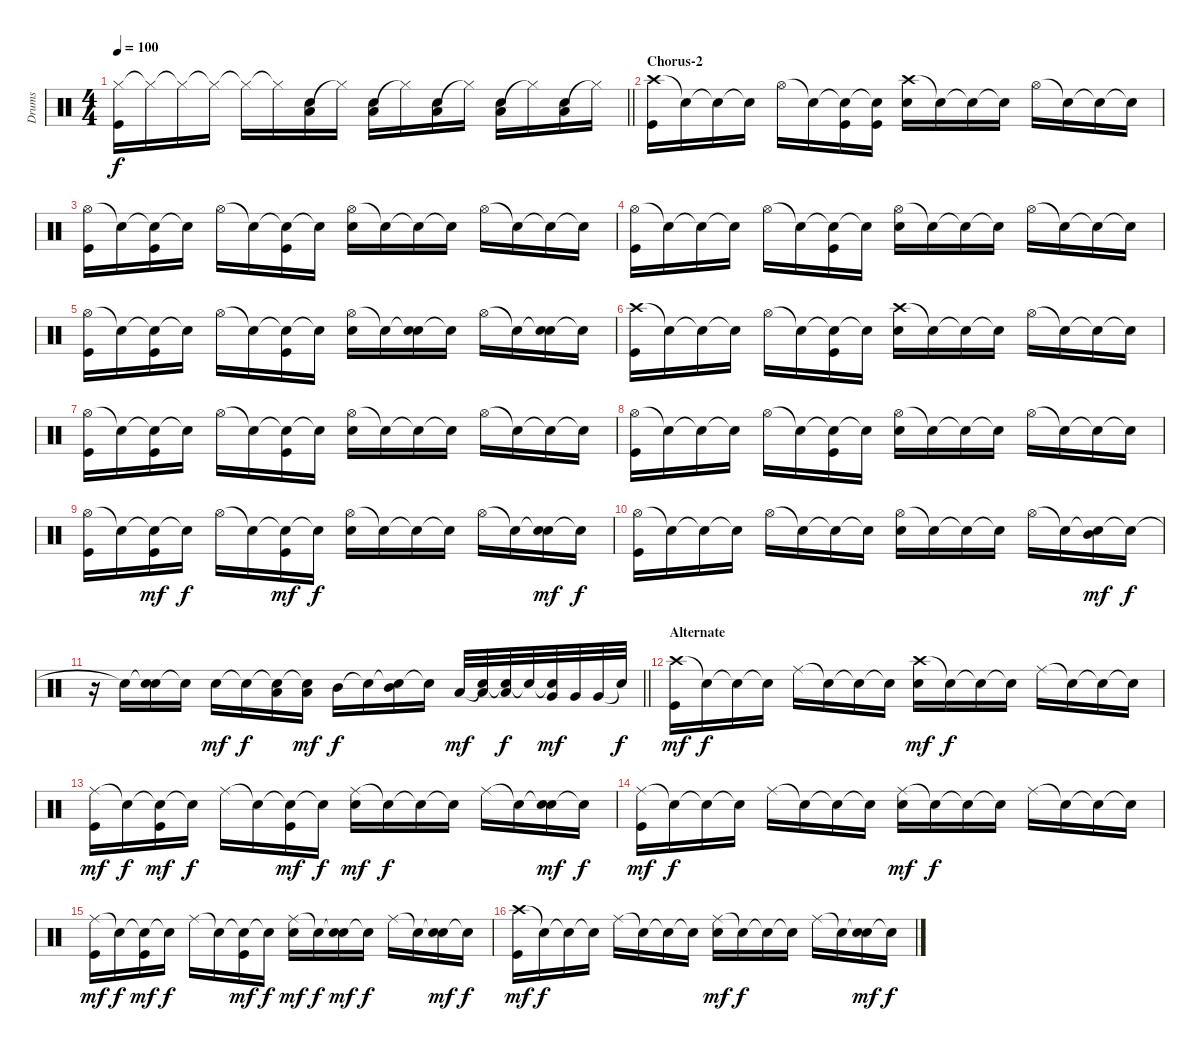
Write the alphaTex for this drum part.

\track ("Drums" "Drums") {instrument percussion}
\staff {score}
\articulation defaults
\ts (4 4)
\tempo 100
\clef neutral
\barLineRight lightlight
\ks c
("Hi-Hat (closed)"{t} "Kick (hit)"{t}).16{dy f} "Hi-Hat (closed)"{t}.16 "Hi-Hat (closed)"{t}.16 "Hi-Hat (closed)"{t}.16 "Hi-Hat (closed)"{t}.16 "Hi-Hat (closed)"{t}.16 ("Low Tom (hit)" "Electric Snare (hit)").16 "Hi-Hat (closed)"{t}.16 ("Low Tom (hit)" "Electric Snare (hit)").16 "Hi-Hat (closed)"{t}.16 ("Low Tom (hit)" "Electric Snare (hit)").16 "Hi-Hat (closed)"{t}.16 ("Low Tom (hit)" "Electric Snare (hit)").16 "Hi-Hat (closed)"{t}.16 ("Low Tom (hit)" "Electric Snare (hit)").16 "Hi-Hat (closed)"{t}.16 |
\section ("" "Chorus-2")
("Crash high (hit)" "Kick (hit)").16 "Snare (hit)"{t}.16 "Snare (hit)"{t}.16 "Snare (hit)"{t}.16 "Hi-Hat (open)".16 "Snare (hit)"{t}.16 ("Snare (hit)"{t} "Kick (hit)").16 ("Snare (hit)"{t} "Kick (hit)").16 ("Crash high (hit)" "Electric Snare (hit)").16 "Snare (hit)"{t}.16 "Snare (hit)"{t}.16 "Snare (hit)"{t}.16 "Hi-Hat (open)".16 "Snare (hit)"{t}.16 "Snare (hit)"{t}.16 "Snare (hit)"{t}.16 |
("Hi-Hat (open)" "Kick (hit)").16 "Snare (hit)"{t}.16 ("Snare (hit)"{t} "Kick (hit)").16 "Snare (hit)"{t}.16 "Hi-Hat (open)".16 "Snare (hit)"{t}.16 ("Snare (hit)"{t} "Kick (hit)").16 "Snare (hit)"{t}.16 ("Hi-Hat (open)" "Electric Snare (hit)").16 "Snare (hit)"{t}.16 "Snare (hit)"{t}.16 "Snare (hit)"{t}.16 "Hi-Hat (open)".16 "Snare (hit)"{t}.16 "Snare (hit)"{t}.16 "Snare (hit)"{t}.16 |
("Hi-Hat (open)" "Kick (hit)").16 "Snare (hit)"{t}.16 "Snare (hit)"{t}.16 "Snare (hit)"{t}.16 "Hi-Hat (open)".16 "Snare (hit)"{t}.16 ("Snare (hit)"{t} "Kick (hit)").16 "Snare (hit)"{t}.16 ("Hi-Hat (open)" "Electric Snare (hit)").16 "Snare (hit)"{t}.16 "Snare (hit)"{t}.16 "Snare (hit)"{t}.16 "Hi-Hat (open)".16 "Snare (hit)"{t}.16 "Snare (hit)"{t}.16 "Snare (hit)"{t}.16 |
("Hi-Hat (open)" "Kick (hit)").16 "Snare (hit)"{t}.16 ("Snare (hit)"{t} "Kick (hit)").16 "Snare (hit)"{t}.16 "Hi-Hat (open)".16 "Snare (hit)"{t}.16 ("Snare (hit)"{t} "Kick (hit)").16 "Snare (hit)"{t}.16 ("Hi-Hat (open)" "Electric Snare (hit)").16 "Snare (hit)"{t}.16 ("Snare (hit)"{t} "Electric Snare (hit)").16 "Snare (hit)"{t}.16 "Hi-Hat (open)".16 "Snare (hit)"{t}.16 ("Snare (hit)"{t} "Electric Snare (hit)").16 "Snare (hit)"{t}.16 |
("Crash high (hit)" "Kick (hit)").16 "Snare (hit)"{t}.16 "Snare (hit)"{t}.16 "Snare (hit)"{t}.16 "Hi-Hat (open)".16 "Snare (hit)"{t}.16 ("Snare (hit)"{t} "Kick (hit)").16 "Snare (hit)"{t}.16 ("Crash high (hit)" "Electric Snare (hit)").16 "Snare (hit)"{t}.16 "Snare (hit)"{t}.16 "Snare (hit)"{t}.16 "Hi-Hat (open)".16 "Snare (hit)"{t}.16 "Snare (hit)"{t}.16 "Snare (hit)"{t}.16 |
("Hi-Hat (open)" "Kick (hit)").16 "Snare (hit)"{t}.16 ("Snare (hit)"{t} "Kick (hit)").16 "Snare (hit)"{t}.16 "Hi-Hat (open)".16 "Snare (hit)"{t}.16 ("Snare (hit)"{t} "Kick (hit)").16 "Snare (hit)"{t}.16 ("Hi-Hat (open)" "Electric Snare (hit)").16 "Snare (hit)"{t}.16 "Snare (hit)"{t}.16 "Snare (hit)"{t}.16 "Hi-Hat (open)".16 "Snare (hit)"{t}.16 "Snare (hit)"{t}.16 "Snare (hit)"{t}.16 |
("Hi-Hat (open)" "Kick (hit)").16 "Snare (hit)"{t}.16 "Snare (hit)"{t}.16 "Snare (hit)"{t}.16 "Hi-Hat (open)".16 "Snare (hit)"{t}.16 ("Snare (hit)"{t} "Kick (hit)").16 "Snare (hit)"{t}.16 ("Hi-Hat (open)" "Electric Snare (hit)").16 "Snare (hit)"{t}.16 "Snare (hit)"{t}.16 "Snare (hit)"{t}.16 "Hi-Hat (open)".16 "Snare (hit)"{t}.16 "Snare (hit)"{t}.16 "Snare (hit)"{t}.16 |
("Hi-Hat (open)" "Kick (hit)").16 "Snare (hit)"{t}.16 ("Snare (hit)"{t} "Kick (hit)").16{dy mf} "Snare (hit)"{t}.16{dy f} "Hi-Hat (open)".16 "Snare (hit)"{t}.16 ("Snare (hit)"{t} "Kick (hit)").16{dy mf} "Snare (hit)"{t}.16{dy f} ("Hi-Hat (open)" "Electric Snare (hit)").16 "Snare (hit)"{t}.16 "Snare (hit)"{t}.16 "Snare (hit)"{t}.16 "Hi-Hat (open)".16 "Snare (hit)"{t}.16 ("Snare (hit)"{t} "Electric Snare (hit)").16{dy mf} "Snare (hit)"{t}.16{dy f} |
("Hi-Hat (open)" "Kick (hit)").16 "Snare (hit)"{t}.16 "Snare (hit)"{t}.16 "Snare (hit)"{t}.16 "Hi-Hat (open)".16 "Snare (hit)"{t}.16 "Snare (hit)"{t}.16 "Snare (hit)"{t}.16 ("Hi-Hat (open)" "Electric Snare (hit)").16 "Snare (hit)"{t}.16 "Snare (hit)"{t}.16 "Snare (hit)"{t}.16 "Hi-Hat (open)".16 "Snare (hit)"{t}.16 ("Snare (hit)"{t} "Mid Tom (hit)").16{dy mf} "Snare (hit)"{t}.16{dy f} |
\barLineRight lightlight
r.16 "Snare (hit)"{t}.16 ("Snare (hit)"{t} "Electric Snare (hit)").16 "Snare (hit)"{t}.16 "Electric Snare (hit)".16{dy mf} "Snare (hit)"{t}.16{dy f} ("Snare (hit)"{t} "Low Tom (hit)").16 ("Snare (hit)"{t} "Low Tom (hit)").16{dy mf} "Mid Tom (hit)".16{dy f} "Snare (hit)"{t}.16 ("Snare (hit)"{t} "Mid Tom (hit)").16 "Snare (hit)"{t}.16 "Low Tom (hit)".32{dy mf} ("Snare (hit)"{t} "Low Tom (hit)").32 ("Snare (hit)"{t} "Low Tom (hit)").32{dy f} "Snare (hit)"{t}.32 ("Snare (hit)"{t} "Very Low Tom (hit)").32{dy mf} "Very Low Tom (hit)".32 "Very Low Tom (hit)".32 "Snare (hit)"{t}.32{dy f} |
\section ("" "Alternate")
("Crash high (hit)" "Kick (hit)").16{dy mf} "Snare (hit)"{t}.16{dy f} "Snare (hit)"{t}.16 "Snare (hit)"{t}.16 "Ride (middle)".16 "Snare (hit)"{t}.16 "Snare (hit)"{t}.16 "Snare (hit)"{t}.16 ("Crash high (hit)" "Electric Snare (hit)").16{dy mf} "Snare (hit)"{t}.16{dy f} "Snare (hit)"{t}.16 "Snare (hit)"{t}.16 "Ride (middle)".16 "Snare (hit)"{t}.16 "Snare (hit)"{t}.16 "Snare (hit)"{t}.16 |
("Ride (middle)" "Kick (hit)").16{dy mf} "Snare (hit)"{t}.16{dy f} ("Snare (hit)"{t} "Kick (hit)").16{dy mf} "Snare (hit)"{t}.16{dy f} "Ride (middle)".16 "Snare (hit)"{t}.16 ("Snare (hit)"{t} "Kick (hit)").16{dy mf} "Snare (hit)"{t}.16{dy f} ("Ride (middle)" "Electric Snare (hit)").16{dy mf} "Snare (hit)"{t}.16{dy f} "Snare (hit)"{t}.16 "Snare (hit)"{t}.16 "Ride (middle)".16 "Snare (hit)"{t}.16 ("Snare (hit)"{t} "Electric Snare (hit)").16{dy mf} "Snare (hit)"{t}.16{dy f} |
("Ride (middle)" "Kick (hit)").16{dy mf} "Snare (hit)"{t}.16{dy f} "Snare (hit)"{t}.16 "Snare (hit)"{t}.16 "Ride (middle)".16 "Snare (hit)"{t}.16 "Snare (hit)"{t}.16 "Snare (hit)"{t}.16 ("Ride (middle)" "Electric Snare (hit)").16{dy mf} "Snare (hit)"{t}.16{dy f} "Snare (hit)"{t}.16 "Snare (hit)"{t}.16 "Ride (middle)".16 "Snare (hit)"{t}.16 "Snare (hit)"{t}.16 "Snare (hit)"{t}.16 |
("Ride (middle)" "Kick (hit)").16{dy mf} "Snare (hit)"{t}.16{dy f} ("Snare (hit)"{t} "Kick (hit)").16{dy mf} "Snare (hit)"{t}.16{dy f} "Ride (middle)".16 "Snare (hit)"{t}.16 ("Snare (hit)"{t} "Kick (hit)").16{dy mf} "Snare (hit)"{t}.16{dy f} ("Ride (middle)" "Electric Snare (hit)").16{dy mf} "Snare (hit)"{t}.16{dy f} ("Snare (hit)"{t} "Electric Snare (hit)").16{dy mf} "Snare (hit)"{t}.16{dy f} "Ride (middle)".16 "Snare (hit)"{t}.16 ("Snare (hit)"{t} "Electric Snare (hit)").16{dy mf} "Snare (hit)"{t}.16{dy f} |
("Crash high (hit)" "Kick (hit)").16{dy mf} "Snare (hit)"{t}.16{dy f} "Snare (hit)"{t}.16 "Snare (hit)"{t}.16 "Ride (middle)".16 "Snare (hit)"{t}.16 "Snare (hit)"{t}.16 "Snare (hit)"{t}.16 ("Ride (middle)" "Electric Snare (hit)").16{dy mf} "Snare (hit)"{t}.16{dy f} "Snare (hit)"{t}.16 "Snare (hit)"{t}.16 "Ride (middle)".16 "Snare (hit)"{t}.16 ("Snare (hit)"{t} "Electric Snare (hit)").16{dy mf} "Snare (hit)"{t}.16{dy f}
